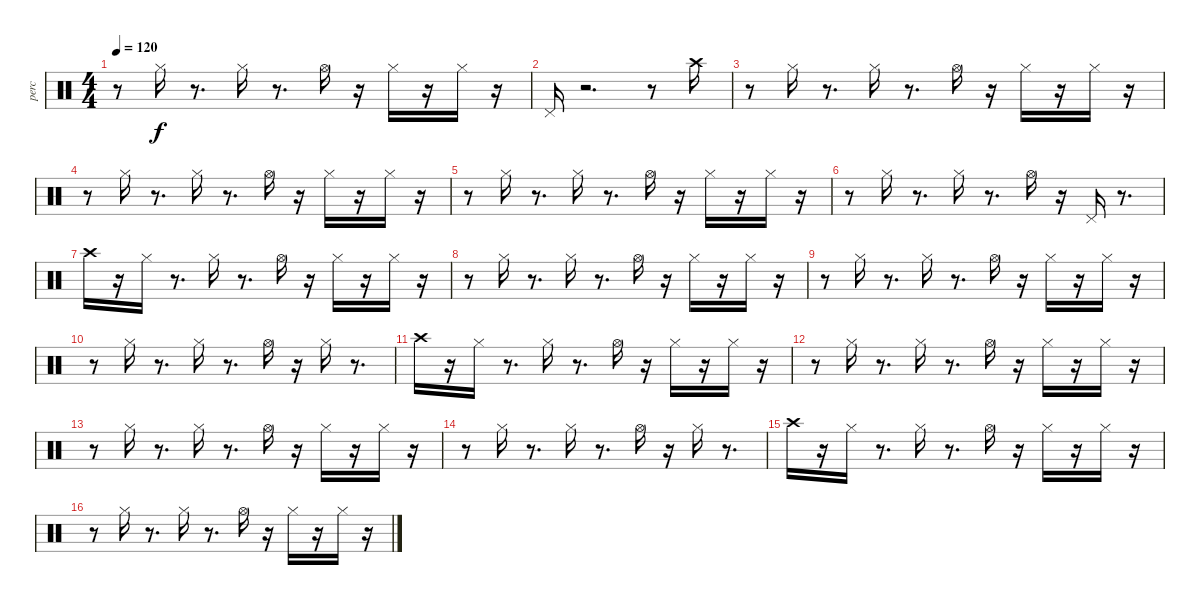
\track ("perc" "perc") {instrument percussion}
\staff {score}
\articulation defaults
\ts (4 4)
\tempo 120
\clef neutral
\ks c
r.8{dy f} "Hi-Hat (closed)".16 r.8{d} "Hi-Hat (closed)".16 r.8{d} "Hi-Hat (open)".16 r.16 "Hi-Hat (closed)".16 r.16 "Hi-Hat (closed)".16 r.16 |
"Pedal Hi-Hat (hit)".16 r.2{d} r.8 "Crash high (hit)".16 |
r.8 "Hi-Hat (closed)".16 r.8{d} "Hi-Hat (closed)".16 r.8{d} "Hi-Hat (open)".16 r.16 "Hi-Hat (closed)".16 r.16 "Hi-Hat (closed)".16 r.16 |
r.8 "Hi-Hat (closed)".16 r.8{d} "Hi-Hat (closed)".16 r.8{d} "Hi-Hat (open)".16 r.16 "Hi-Hat (closed)".16 r.16 "Hi-Hat (closed)".16 r.16 |
r.8 "Hi-Hat (closed)".16 r.8{d} "Hi-Hat (closed)".16 r.8{d} "Hi-Hat (open)".16 r.16 "Hi-Hat (closed)".16 r.16 "Hi-Hat (closed)".16 r.16 |
r.8 "Hi-Hat (closed)".16 r.8{d} "Hi-Hat (closed)".16 r.8{d} "Hi-Hat (open)".16 r.16 "Pedal Hi-Hat (hit)".16 r.8{d} |
"Crash high (hit)".16 r.16 "Hi-Hat (closed)".16 r.8{d} "Hi-Hat (closed)".16 r.8{d} "Hi-Hat (open)".16 r.16 "Hi-Hat (closed)".16 r.16 "Hi-Hat (closed)".16 r.16 |
r.8 "Hi-Hat (closed)".16 r.8{d} "Hi-Hat (closed)".16 r.8{d} "Hi-Hat (open)".16 r.16 "Hi-Hat (closed)".16 r.16 "Hi-Hat (closed)".16 r.16 |
r.8 "Hi-Hat (closed)".16 r.8{d} "Hi-Hat (closed)".16 r.8{d} "Hi-Hat (open)".16 r.16 "Hi-Hat (closed)".16 r.16 "Hi-Hat (closed)".16 r.16 |
r.8 "Hi-Hat (closed)".16 r.8{d} "Hi-Hat (closed)".16 r.8{d} "Hi-Hat (open)".16 r.16 "Hi-Hat (closed)".16 r.8{d} |
"Crash high (hit)".16 r.16 "Hi-Hat (closed)".16 r.8{d} "Hi-Hat (closed)".16 r.8{d} "Hi-Hat (open)".16 r.16 "Hi-Hat (closed)".16 r.16 "Hi-Hat (closed)".16 r.16 |
r.8 "Hi-Hat (closed)".16 r.8{d} "Hi-Hat (closed)".16 r.8{d} "Hi-Hat (open)".16 r.16 "Hi-Hat (closed)".16 r.16 "Hi-Hat (closed)".16 r.16 |
r.8 "Hi-Hat (closed)".16 r.8{d} "Hi-Hat (closed)".16 r.8{d} "Hi-Hat (open)".16 r.16 "Hi-Hat (closed)".16 r.16 "Hi-Hat (closed)".16 r.16 |
r.8 "Hi-Hat (closed)".16 r.8{d} "Hi-Hat (closed)".16 r.8{d} "Hi-Hat (open)".16 r.16 "Hi-Hat (closed)".16 r.8{d} |
"Crash high (hit)".16 r.16 "Hi-Hat (closed)".16 r.8{d} "Hi-Hat (closed)".16 r.8{d} "Hi-Hat (open)".16 r.16 "Hi-Hat (closed)".16 r.16 "Hi-Hat (closed)".16 r.16 |
r.8 "Hi-Hat (closed)".16 r.8{d} "Hi-Hat (closed)".16 r.8{d} "Hi-Hat (open)".16 r.16 "Hi-Hat (closed)".16 r.16 "Hi-Hat (closed)".16 r.16
